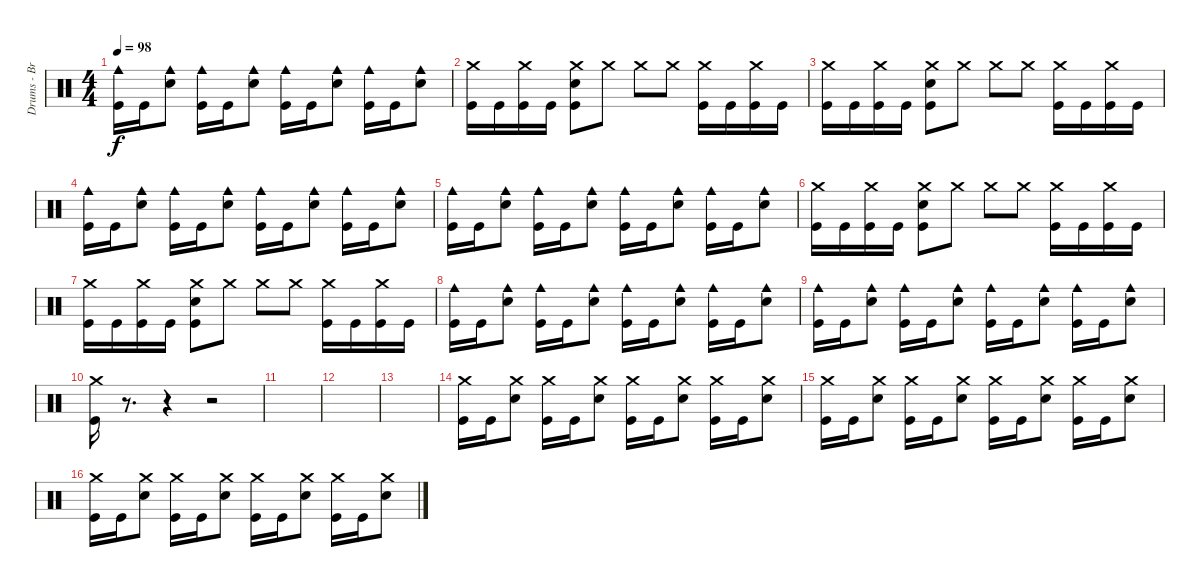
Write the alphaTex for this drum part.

\track ("Drums - Brandon" "Drums - Br") {instrument percussion}
\staff {score}
\articulation defaults
\ts (4 4)
\tempo 98
\clef neutral
\ks c
("Cowbell medium (hit)" "Kick (hit)").16{dy f} "Kick (hit)".16 ("Cowbell medium (hit)" "Electric Snare (hit)").8 ("Cowbell medium (hit)" "Kick (hit)").16 "Kick (hit)".16 ("Cowbell medium (hit)" "Electric Snare (hit)").8 ("Cowbell medium (hit)" "Kick (hit)").16 "Kick (hit)".16 ("Cowbell medium (hit)" "Electric Snare (hit)").8 ("Cowbell medium (hit)" "Kick (hit)").16 "Kick (hit)".16 ("Cowbell medium (hit)" "Electric Snare (hit)").8 |
("Crash medium (hit)" "Kick (hit)").16 "Kick (hit)".16 ("Crash medium (hit)" "Kick (hit)").16 "Kick (hit)".16 ("Crash medium (hit)" "Snare (hit) 2" "Kick (hit)").8 "Crash medium (hit)".8 "Crash medium (hit)".8 "Crash medium (hit)".8 ("Crash medium (hit)" "Kick (hit)").16 "Kick (hit)".16 ("Crash medium (hit)" "Kick (hit)").16 "Kick (hit)".16 |
("Crash medium (hit)" "Kick (hit)").16 "Kick (hit)".16 ("Crash medium (hit)" "Kick (hit)").16 "Kick (hit)".16 ("Crash medium (hit)" "Electric Snare (hit)" "Kick (hit)").8 "Crash medium (hit)".8 "Crash medium (hit)".8 "Crash medium (hit)".8 ("Crash medium (hit)" "Kick (hit)").16 "Kick (hit)".16 ("Crash medium (hit)" "Kick (hit)").16 "Kick (hit)".16 |
("Cowbell medium (hit)" "Kick (hit)").16 "Kick (hit)".16 ("Cowbell medium (hit)" "Electric Snare (hit)").8 ("Cowbell medium (hit)" "Kick (hit)").16 "Kick (hit)".16 ("Cowbell medium (hit)" "Electric Snare (hit)").8 ("Cowbell medium (hit)" "Kick (hit)").16 "Kick (hit)".16 ("Cowbell medium (hit)" "Electric Snare (hit)").8 ("Cowbell medium (hit)" "Kick (hit)").16 "Kick (hit)".16 ("Cowbell medium (hit)" "Electric Snare (hit)").8 |
("Cowbell medium (hit)" "Kick (hit)").16 "Kick (hit)".16 ("Cowbell medium (hit)" "Electric Snare (hit)").8 ("Cowbell medium (hit)" "Kick (hit)").16 "Kick (hit)".16 ("Cowbell medium (hit)" "Electric Snare (hit)").8 ("Cowbell medium (hit)" "Kick (hit)").16 "Kick (hit)".16 ("Cowbell medium (hit)" "Electric Snare (hit)").8 ("Cowbell medium (hit)" "Kick (hit)").16 "Kick (hit)".16 ("Cowbell medium (hit)" "Electric Snare (hit)").8 |
("Crash medium (hit)" "Kick (hit)").16 "Kick (hit)".16 ("Crash medium (hit)" "Kick (hit)").16 "Kick (hit)".16 ("Crash medium (hit)" "Snare (hit) 2" "Kick (hit)").8 "Crash medium (hit)".8 "Crash medium (hit)".8 "Crash medium (hit)".8 ("Crash medium (hit)" "Kick (hit)").16 "Kick (hit)".16 ("Crash medium (hit)" "Kick (hit)").16 "Kick (hit)".16 |
("Crash medium (hit)" "Kick (hit)").16 "Kick (hit)".16 ("Crash medium (hit)" "Kick (hit)").16 "Kick (hit)".16 ("Crash medium (hit)" "Electric Snare (hit)" "Kick (hit)").8 "Crash medium (hit)".8 "Crash medium (hit)".8 "Crash medium (hit)".8 ("Crash medium (hit)" "Kick (hit)").16 "Kick (hit)".16 ("Crash medium (hit)" "Kick (hit)").16 "Kick (hit)".16 |
("Cowbell medium (hit)" "Kick (hit)").16 "Kick (hit)".16 ("Cowbell medium (hit)" "Electric Snare (hit)").8 ("Cowbell medium (hit)" "Kick (hit)").16 "Kick (hit)".16 ("Cowbell medium (hit)" "Electric Snare (hit)").8 ("Cowbell medium (hit)" "Kick (hit)").16 "Kick (hit)".16 ("Cowbell medium (hit)" "Electric Snare (hit)").8 ("Cowbell medium (hit)" "Kick (hit)").16 "Kick (hit)".16 ("Cowbell medium (hit)" "Electric Snare (hit)").8 |
("Cowbell medium (hit)" "Kick (hit)").16 "Kick (hit)".16 ("Cowbell medium (hit)" "Electric Snare (hit)").8 ("Cowbell medium (hit)" "Kick (hit)").16 "Kick (hit)".16 ("Cowbell medium (hit)" "Electric Snare (hit)").8 ("Cowbell medium (hit)" "Kick (hit)").16 "Kick (hit)".16 ("Cowbell medium (hit)" "Electric Snare (hit)").8 ("Cowbell medium (hit)" "Kick (hit)").16 "Kick (hit)".16 ("Cowbell medium (hit)" "Electric Snare (hit)").8 |
("Crash medium (hit)" "Kick (hit)").16 r.8{d} r.4 r.2 |
|
|
|
("Crash medium (hit)" "Kick (hit)").16 "Kick (hit)".16 ("Crash medium (hit)" "Snare (hit) 2").8 ("Crash medium (hit)" "Kick (hit)").16 "Kick (hit)".16 ("Crash medium (hit)" "Snare (hit) 2").8 ("Crash medium (hit)" "Kick (hit)").16 "Kick (hit)".16 ("Crash medium (hit)" "Snare (hit) 2").8 ("Crash medium (hit)" "Kick (hit)").16 "Kick (hit)".16 ("Crash medium (hit)" "Snare (hit) 2").8 |
("Crash medium (hit)" "Kick (hit)").16 "Kick (hit)".16 ("Crash medium (hit)" "Snare (hit) 2").8 ("Crash medium (hit)" "Kick (hit)").16 "Kick (hit)".16 ("Crash medium (hit)" "Snare (hit) 2").8 ("Crash medium (hit)" "Kick (hit)").16 "Kick (hit)".16 ("Crash medium (hit)" "Snare (hit) 2").8 ("Crash medium (hit)" "Kick (hit)").16 "Kick (hit)".16 ("Crash medium (hit)" "Snare (hit) 2").8 |
("Crash medium (hit)" "Kick (hit)").16 "Kick (hit)".16 ("Crash medium (hit)" "Snare (hit) 2").8 ("Crash medium (hit)" "Kick (hit)").16 "Kick (hit)".16 ("Crash medium (hit)" "Snare (hit) 2").8 ("Crash medium (hit)" "Kick (hit)").16 "Kick (hit)".16 ("Crash medium (hit)" "Snare (hit) 2").8 ("Crash medium (hit)" "Kick (hit)").16 "Kick (hit)".16 ("Crash medium (hit)" "Snare (hit) 2").8
